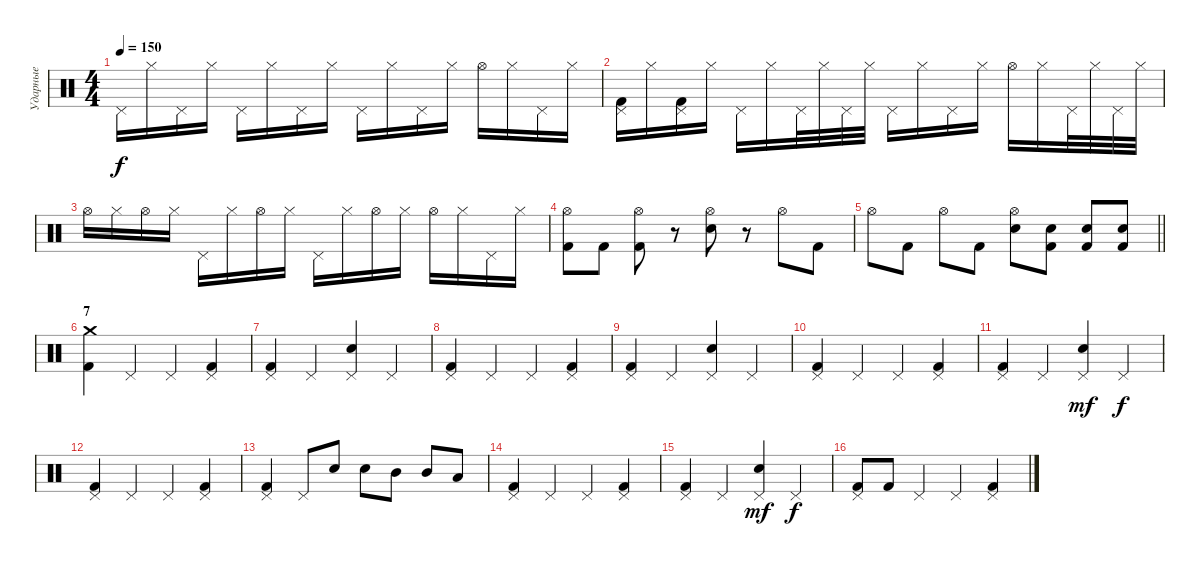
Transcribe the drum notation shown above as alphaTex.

\track ("Ударные" "Ударные") {mute instrument percussion}
\staff {score}
\articulation defaults
\ts (4 4)
\tempo 150
\clef neutral
\ks c "Pedal Hi-Hat (hit)".16{dy f} "Hi-Hat (closed)".16 "Pedal Hi-Hat (hit)".16 "Hi-Hat (closed)".16 "Pedal Hi-Hat (hit)".16 "Hi-Hat (closed)".16 "Pedal Hi-Hat (hit)".16 "Hi-Hat (closed)".16 "Pedal Hi-Hat (hit)".16 "Hi-Hat (closed)".16 "Pedal Hi-Hat (hit)".16 "Hi-Hat (closed)".16 "Hi-Hat (open)".16 "Hi-Hat (closed)".16 "Pedal Hi-Hat (hit)".16 "Hi-Hat (closed)".16
|
("Pedal Hi-Hat (hit)" "Kick (hit) 2").16 "Hi-Hat (closed)".16 ("Pedal Hi-Hat (hit)" "Kick (hit) 2").16 "Hi-Hat (closed)".16 "Pedal Hi-Hat (hit)".16 "Hi-Hat (closed)".16 "Pedal Hi-Hat (hit)".32 "Hi-Hat (closed)".32 "Pedal Hi-Hat (hit)".32 "Hi-Hat (closed)".32 "Pedal Hi-Hat (hit)".16 "Hi-Hat (closed)".16 "Pedal Hi-Hat (hit)".16 "Hi-Hat (closed)".16 "Hi-Hat (open)".16 "Hi-Hat (closed)".16 "Pedal Hi-Hat (hit)".32 "Hi-Hat (closed)".32 "Pedal Hi-Hat (hit)".32 "Hi-Hat (closed)".32 |
"Hi-Hat (open)".16 "Hi-Hat (closed)".16 "Hi-Hat (open)".16 "Hi-Hat (closed)".16 "Pedal Hi-Hat (hit)".16 "Hi-Hat (closed)".16 "Hi-Hat (open)".16 "Hi-Hat (closed)".16 "Pedal Hi-Hat (hit)".16 "Hi-Hat (closed)".16 "Hi-Hat (open)".16 "Hi-Hat (closed)".16 "Hi-Hat (open)".16 "Hi-Hat (closed)".16 "Pedal Hi-Hat (hit)".16 "Hi-Hat (closed)".16 |
("Hi-Hat (open)" "Kick (hit) 2").8 "Kick (hit) 2".8 ("Hi-Hat (open)" "Kick (hit) 2").8 r.8 ("Hi-Hat (open)" "Snare (hit) 2").8 r.8 "Hi-Hat (open)".8 "Kick (hit) 2".8 |
\barLineRight lightlight "Hi-Hat (open)".8 "Kick (hit) 2".8 "Hi-Hat (open)".8 "Kick (hit) 2".8
("Hi-Hat (open)" "Snare (hit) 2").8 ("Snare (hit) 2" "Kick (hit) 2").8 ("Snare (hit) 2" "Kick (hit) 2").8 ("Snare (hit) 2" "Kick (hit) 2").8 |
\section ("" "7")
("Crash medium (hit)" "Kick (hit) 2").4 "Pedal Hi-Hat (hit)".4 "Pedal Hi-Hat (hit)".4 ("Pedal Hi-Hat (hit)" "Kick (hit) 2").4 |
("Pedal Hi-Hat (hit)" "Kick (hit) 2").4 "Pedal Hi-Hat (hit)".4 ("Pedal Hi-Hat (hit)" "Snare (hit) 2").4 "Pedal Hi-Hat (hit)".4 |
("Pedal Hi-Hat (hit)" "Kick (hit) 2").4 "Pedal Hi-Hat (hit)".4 "Pedal Hi-Hat (hit)".4 ("Pedal Hi-Hat (hit)" "Kick (hit) 2").4 |
("Pedal Hi-Hat (hit)" "Kick (hit) 2").4 "Pedal Hi-Hat (hit)".4 ("Pedal Hi-Hat (hit)" "Snare (hit) 2").4 "Pedal Hi-Hat (hit)".4 |
("Pedal Hi-Hat (hit)" "Kick (hit) 2").4 "Pedal Hi-Hat (hit)".4 "Pedal Hi-Hat (hit)".4 ("Pedal Hi-Hat (hit)" "Kick (hit) 2").4 |
("Pedal Hi-Hat (hit)" "Kick (hit) 2").4 "Pedal Hi-Hat (hit)".4 ("Pedal Hi-Hat (hit)" "Snare (hit) 2").4{dy mf} "Pedal Hi-Hat (hit)".4{dy f} |
("Pedal Hi-Hat (hit)" "Kick (hit) 2").4 "Pedal Hi-Hat (hit)".4 "Pedal Hi-Hat (hit)".4 ("Pedal Hi-Hat (hit)" "Kick (hit) 2").4 |
("Pedal Hi-Hat (hit)" "Kick (hit) 2").4 "Pedal Hi-Hat (hit)".8 "Snare (hit) 2".8 "Snare (hit) 2".8 "Mid Tom (hit)".8 "Mid Tom (hit)".8 "Low Tom (hit)".8 |
("Pedal Hi-Hat (hit)" "Kick (hit) 2").4 "Pedal Hi-Hat (hit)".4 "Pedal Hi-Hat (hit)".4 ("Pedal Hi-Hat (hit)" "Kick (hit) 2").4 |
("Pedal Hi-Hat (hit)" "Kick (hit) 2").4 "Pedal Hi-Hat (hit)".4 ("Pedal Hi-Hat (hit)" "Snare (hit) 2").4{dy mf} "Pedal Hi-Hat (hit)".4{dy f} |
("Pedal Hi-Hat (hit)" "Kick (hit) 2").8 "Kick (hit) 2".8 "Pedal Hi-Hat (hit)".4 "Pedal Hi-Hat (hit)".4 ("Pedal Hi-Hat (hit)" "Kick (hit) 2").4
